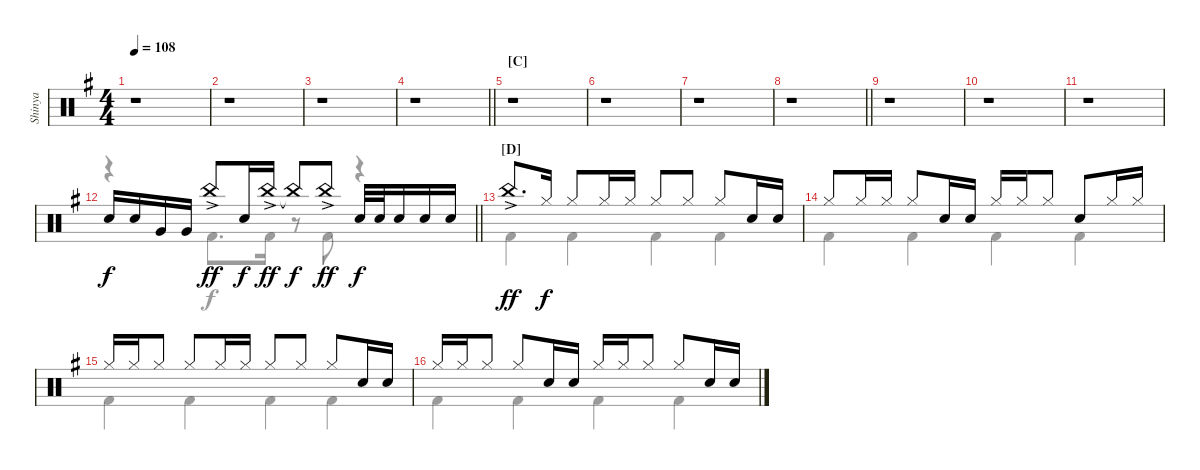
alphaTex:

\track ("Shinya" "Shinya") {instrument percussion}
\staff {score}
\articulation defaults
\voice
\ts (4 4)
\tempo 108
\clef neutral
\ks g
r.1{dy f} |
r.1 |
r.1 |
\barLineRight lightlight
r.1 |
\section ("" "[C]")
r.1 |
r.1 |
r.1 |
\barLineRight lightlight
r.1 |
r.1 |
r.1 |
r.1 |
\barLineRight lightlight "Snare (hit) 2".16 "Snare (hit) 2".16 "Very Low Tom (hit)".16 "Very Low Tom (hit)".16 "China (hit)"{ac}.8{dy ff} "Snare (hit) 2".16{dy f} "China (hit)"{ac}.16{dy ff} "China (hit)"{t}.8{dy f} "China (hit)"{ac}.8{dy ff} "Snare (hit) 2".32{dy f} "Snare (hit) 2".32 "Snare (hit) 2".16 "Snare (hit) 2".16 "Snare (hit) 2".16
|
\section ("" "[D]")
"China (hit)"{ac}.8{d dy ff} "Hi-Hat (closed)".16{dy f} "Hi-Hat (closed)".8 "Hi-Hat (closed)".16 "Hi-Hat (closed)".16 "Hi-Hat (closed)".8 "Hi-Hat (closed)".8 "Hi-Hat (closed)".8 "Snare (hit) 2".16 "Snare (hit) 2".16 |
"Hi-Hat (closed)".8 "Hi-Hat (closed)".16 "Hi-Hat (closed)".16 "Hi-Hat (closed)".8 "Snare (hit) 2".16 "Snare (hit) 2".16 "Hi-Hat (closed)".16 "Hi-Hat (closed)".16 "Hi-Hat (closed)".8 "Snare (hit) 2".8 "Hi-Hat (closed)".16 "Hi-Hat (closed)".16 |
"Hi-Hat (closed)".16 "Hi-Hat (closed)".16 "Hi-Hat (closed)".8 "Hi-Hat (closed)".8 "Hi-Hat (closed)".16 "Hi-Hat (closed)".16 "Hi-Hat (closed)".8 "Hi-Hat (closed)".8 "Hi-Hat (closed)".8 "Snare (hit) 2".16 "Snare (hit) 2".16 |
"Hi-Hat (closed)".16 "Hi-Hat (closed)".16 "Hi-Hat (closed)".8 "Hi-Hat (closed)".8 "Snare (hit) 2".16 "Snare (hit) 2".16 "Hi-Hat (closed)".16 "Hi-Hat (closed)".16 "Hi-Hat (closed)".8 "Hi-Hat (closed)".8 "Snare (hit) 2".16 "Snare (hit) 2".16
\voice
\clef neutral
\ottava regular
\simile none
\ks g
|
|
|
\barLineRight lightlight
|
|
|
|
\barLineRight lightlight
|
|
|
|
\barLineRight lightlight
r.4 "Kick (hit) 2".8{d} "Kick (hit) 2".16 r.8 "Kick (hit) 2".8 r.4 |
"Kick (hit) 2".4 "Kick (hit) 2".4 "Kick (hit) 2".4 "Kick (hit) 2".4 |
"Kick (hit) 2".4 "Kick (hit) 2".4 "Kick (hit) 2".4 "Kick (hit) 2".4 |
"Kick (hit) 2".4 "Kick (hit) 2".4 "Kick (hit) 2".4 "Kick (hit) 2".4 |
"Kick (hit) 2".4 "Kick (hit) 2".4 "Kick (hit) 2".4 "Kick (hit) 2".4
